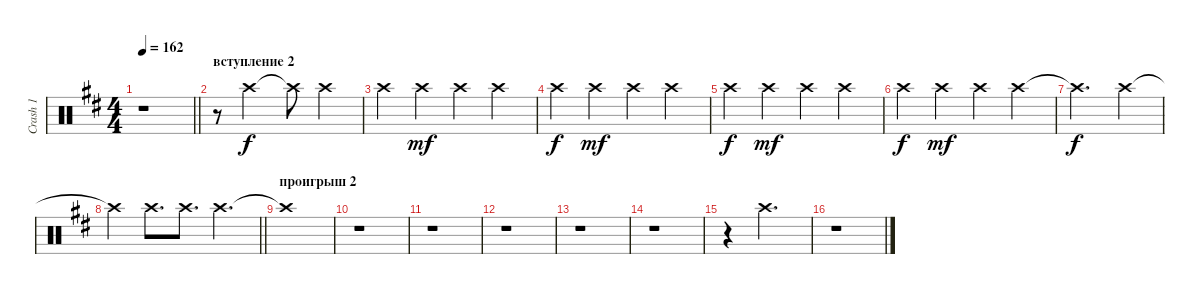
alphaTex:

\track ("Crash 1" "Crash 1") {instrument percussion}
\staff {score}
\articulation defaults
\ts (4 4)
\tempo 162
\clef neutral
\barLineRight lightlight
\ks bminor
r.1{dy f} |
\section ("" "вступление 2")
r.8 "Crash high (hit)".2 "Crash high (hit)"{t}.8 "Crash high (hit)".4 |
"Crash high (hit)".4 "Crash high (hit)".4{dy mf} "Crash high (hit)".4 "Crash high (hit)".4 |
"Crash high (hit)".4{dy f} "Crash high (hit)".4{dy mf} "Crash high (hit)".4 "Crash high (hit)".4 |
"Crash high (hit)".4{dy f} "Crash high (hit)".4{dy mf} "Crash high (hit)".4 "Crash high (hit)".4 |
"Crash high (hit)".4{dy f} "Crash high (hit)".4{dy mf} "Crash high (hit)".4 "Crash high (hit)".4 |
"Crash high (hit)"{t}.2{d dy f} "Crash high (hit)".4 |
\barLineRight lightlight "Crash high (hit)"{t}.4 "Crash high (hit)".8{d} "Crash high (hit)".8{d} "Crash high (hit)".4{d}
|
\section ("" "проигрыш 2")
"Crash high (hit)"{t}.1 |
r.1 |
r.1 |
r.1 |
r.1 |
r.1 |
r.4 "Crash high (hit)".2{d} |
r.1
